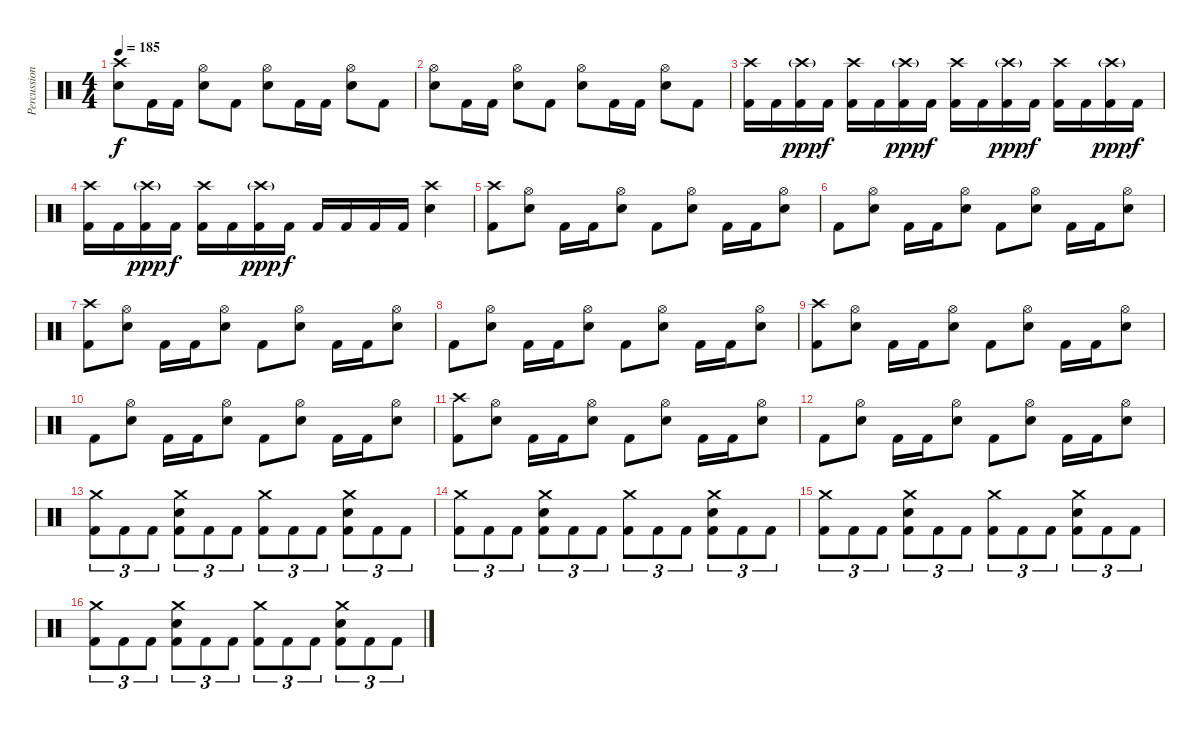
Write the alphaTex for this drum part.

\track ("Percussion" "Percussion") {instrument percussion}
\staff {score}
\articulation defaults
\ts (4 4)
\tempo 185
\clef neutral
\ks c
("Crash high (hit)" "Electric Snare (hit)").8{dy f} "Kick (hit) 2".16 "Kick (hit) 2".16 ("Hi-Hat (open)" "Electric Snare (hit)").8 "Kick (hit) 2".8 ("Hi-Hat (open)" "Electric Snare (hit)").8 "Kick (hit) 2".16 "Kick (hit) 2".16 ("Hi-Hat (open)" "Electric Snare (hit)").8 "Kick (hit) 2".8 |
("Hi-Hat (open)" "Electric Snare (hit)").8 "Kick (hit) 2".16 "Kick (hit) 2".16 ("Hi-Hat (open)" "Electric Snare (hit)").8 "Kick (hit) 2".8 ("Hi-Hat (open)" "Electric Snare (hit)").8 "Kick (hit) 2".16 "Kick (hit) 2".16 ("Hi-Hat (open)" "Electric Snare (hit)").8 "Kick (hit) 2".8 |
("Crash high (hit)" "Kick (hit) 2").16 "Kick (hit) 2".16 ("Crash high (hit)"{g} "Kick (hit) 2").16{dy ppp} "Kick (hit) 2".16{dy f} ("Crash high (hit)" "Kick (hit) 2").16 "Kick (hit) 2".16 ("Crash high (hit)"{g} "Kick (hit) 2").16{dy ppp} "Kick (hit) 2".16{dy f} ("Crash high (hit)" "Kick (hit) 2").16 "Kick (hit) 2".16 ("Crash high (hit)"{g} "Kick (hit) 2").16{dy ppp} "Kick (hit) 2".16{dy f} ("Crash high (hit)" "Kick (hit) 2").16 "Kick (hit) 2".16 ("Crash high (hit)"{g} "Kick (hit) 2").16{dy ppp} "Kick (hit) 2".16{dy f} |
("Crash high (hit)" "Kick (hit) 2").16 "Kick (hit) 2".16 ("Crash high (hit)"{g} "Kick (hit) 2").16{dy ppp} "Kick (hit) 2".16{dy f} ("Crash high (hit)" "Kick (hit) 2").16 "Kick (hit) 2".16 ("Crash high (hit)"{g} "Kick (hit) 2").16{dy ppp} "Kick (hit) 2".16{dy f} "Kick (hit) 2".16 "Kick (hit) 2".16 "Kick (hit) 2".16 "Kick (hit) 2".16 ("Crash high (hit)" "Electric Snare (hit)").4 |
("Crash high (hit)" "Kick (hit) 2").8 ("Hi-Hat (open)" "Electric Snare (hit)").8 "Kick (hit) 2".16 "Kick (hit) 2".16 ("Hi-Hat (open)" "Electric Snare (hit)").8 "Kick (hit) 2".8 ("Hi-Hat (open)" "Electric Snare (hit)").8 "Kick (hit) 2".16 "Kick (hit) 2".16 ("Hi-Hat (open)" "Electric Snare (hit)").8 |
"Kick (hit) 2".8 ("Hi-Hat (open)" "Electric Snare (hit)").8 "Kick (hit) 2".16 "Kick (hit) 2".16 ("Hi-Hat (open)" "Electric Snare (hit)").8 "Kick (hit) 2".8 ("Hi-Hat (open)" "Electric Snare (hit)").8 "Kick (hit) 2".16 "Kick (hit) 2".16 ("Hi-Hat (open)" "Electric Snare (hit)").8 |
("Crash high (hit)" "Kick (hit) 2").8 ("Hi-Hat (open)" "Electric Snare (hit)").8 "Kick (hit) 2".16 "Kick (hit) 2".16 ("Hi-Hat (open)" "Electric Snare (hit)").8 "Kick (hit) 2".8 ("Hi-Hat (open)" "Electric Snare (hit)").8 "Kick (hit) 2".16 "Kick (hit) 2".16 ("Hi-Hat (open)" "Electric Snare (hit)").8 |
"Kick (hit) 2".8 ("Hi-Hat (open)" "Electric Snare (hit)").8 "Kick (hit) 2".16 "Kick (hit) 2".16 ("Hi-Hat (open)" "Electric Snare (hit)").8 "Kick (hit) 2".8 ("Hi-Hat (open)" "Electric Snare (hit)").8 "Kick (hit) 2".16 "Kick (hit) 2".16 ("Hi-Hat (open)" "Electric Snare (hit)").8 |
("Crash high (hit)" "Kick (hit) 2").8 ("Hi-Hat (open)" "Electric Snare (hit)").8 "Kick (hit) 2".16 "Kick (hit) 2".16 ("Hi-Hat (open)" "Electric Snare (hit)").8 "Kick (hit) 2".8 ("Hi-Hat (open)" "Electric Snare (hit)").8 "Kick (hit) 2".16 "Kick (hit) 2".16 ("Hi-Hat (open)" "Electric Snare (hit)").8 |
"Kick (hit) 2".8 ("Hi-Hat (open)" "Electric Snare (hit)").8 "Kick (hit) 2".16 "Kick (hit) 2".16 ("Hi-Hat (open)" "Electric Snare (hit)").8 "Kick (hit) 2".8 ("Hi-Hat (open)" "Electric Snare (hit)").8 "Kick (hit) 2".16 "Kick (hit) 2".16 ("Hi-Hat (open)" "Electric Snare (hit)").8 |
("Crash high (hit)" "Kick (hit) 2").8 ("Hi-Hat (open)" "Electric Snare (hit)").8 "Kick (hit) 2".16 "Kick (hit) 2".16 ("Hi-Hat (open)" "Electric Snare (hit)").8 "Kick (hit) 2".8 ("Hi-Hat (open)" "Electric Snare (hit)").8 "Kick (hit) 2".16 "Kick (hit) 2".16 ("Hi-Hat (open)" "Electric Snare (hit)").8 |
"Kick (hit) 2".8 ("Hi-Hat (open)" "Electric Snare (hit)").8 "Kick (hit) 2".16 "Kick (hit) 2".16 ("Hi-Hat (open)" "Electric Snare (hit)").8 "Kick (hit) 2".8 ("Hi-Hat (open)" "Electric Snare (hit)").8 "Kick (hit) 2".16 "Kick (hit) 2".16 ("Hi-Hat (open)" "Electric Snare (hit)").8 |
("Crash medium (hit)" "Kick (hit) 2").8{tu (3 2)} "Kick (hit) 2".8{tu (3 2)} "Kick (hit) 2".8{tu (3 2)} ("Crash medium (hit)" "Electric Snare (hit)" "Kick (hit) 2").8{tu (3 2)} "Kick (hit) 2".8{tu (3 2)} "Kick (hit) 2".8{tu (3 2)} ("Crash medium (hit)" "Kick (hit) 2").8{tu (3 2)} "Kick (hit) 2".8{tu (3 2)} "Kick (hit) 2".8{tu (3 2)} ("Crash medium (hit)" "Electric Snare (hit)" "Kick (hit) 2").8{tu (3 2)} "Kick (hit) 2".8{tu (3 2)} "Kick (hit) 2".8{tu (3 2)} |
("Crash medium (hit)" "Kick (hit) 2").8{tu (3 2)} "Kick (hit) 2".8{tu (3 2)} "Kick (hit) 2".8{tu (3 2)} ("Crash medium (hit)" "Electric Snare (hit)" "Kick (hit) 2").8{tu (3 2)} "Kick (hit) 2".8{tu (3 2)} "Kick (hit) 2".8{tu (3 2)} ("Crash medium (hit)" "Kick (hit) 2").8{tu (3 2)} "Kick (hit) 2".8{tu (3 2)} "Kick (hit) 2".8{tu (3 2)} ("Crash medium (hit)" "Electric Snare (hit)" "Kick (hit) 2").8{tu (3 2)} "Kick (hit) 2".8{tu (3 2)} "Kick (hit) 2".8{tu (3 2)} |
("Crash medium (hit)" "Kick (hit) 2").8{tu (3 2)} "Kick (hit) 2".8{tu (3 2)} "Kick (hit) 2".8{tu (3 2)} ("Crash medium (hit)" "Electric Snare (hit)" "Kick (hit) 2").8{tu (3 2)} "Kick (hit) 2".8{tu (3 2)} "Kick (hit) 2".8{tu (3 2)} ("Crash medium (hit)" "Kick (hit) 2").8{tu (3 2)} "Kick (hit) 2".8{tu (3 2)} "Kick (hit) 2".8{tu (3 2)} ("Crash medium (hit)" "Electric Snare (hit)" "Kick (hit) 2").8{tu (3 2)} "Kick (hit) 2".8{tu (3 2)} "Kick (hit) 2".8{tu (3 2)} |
("Crash medium (hit)" "Kick (hit) 2").8{tu (3 2)} "Kick (hit) 2".8{tu (3 2)} "Kick (hit) 2".8{tu (3 2)} ("Crash medium (hit)" "Electric Snare (hit)" "Kick (hit) 2").8{tu (3 2)} "Kick (hit) 2".8{tu (3 2)} "Kick (hit) 2".8{tu (3 2)} ("Crash medium (hit)" "Kick (hit) 2").8{tu (3 2)} "Kick (hit) 2".8{tu (3 2)} "Kick (hit) 2".8{tu (3 2)} ("Crash medium (hit)" "Electric Snare (hit)" "Kick (hit) 2").8{tu (3 2)} "Kick (hit) 2".8{tu (3 2)} "Kick (hit) 2".8{tu (3 2)}
